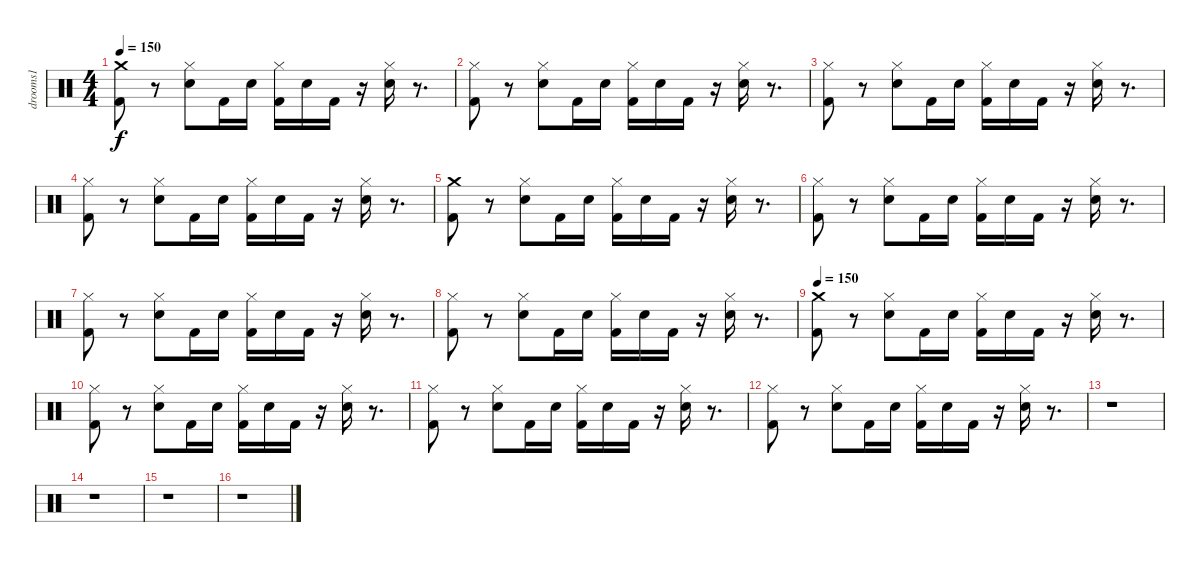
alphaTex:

\track ("drooms1" "drooms1") {instrument percussion}
\staff {score}
\articulation defaults
\ts (4 4)
\tempo 150
\clef neutral
\ks c
("Crash medium (hit)" "Kick (hit) 2").8{dy f} r.8 ("Hi-Hat (closed)" "Electric Snare (hit)").8 "Kick (hit) 2".16 "Electric Snare (hit)".16 ("Hi-Hat (closed)" "Kick (hit) 2").16 "Electric Snare (hit)".16 "Kick (hit) 2".16 r.16 ("Hi-Hat (closed)" "Electric Snare (hit)").16 r.8{d} |
("Hi-Hat (closed)" "Kick (hit) 2").8 r.8 ("Hi-Hat (closed)" "Electric Snare (hit)").8 "Kick (hit) 2".16 "Electric Snare (hit)".16 ("Hi-Hat (closed)" "Kick (hit) 2").16 "Electric Snare (hit)".16 "Kick (hit) 2".16 r.16 ("Hi-Hat (closed)" "Electric Snare (hit)").16 r.8{d} |
("Hi-Hat (closed)" "Kick (hit) 2").8 r.8 ("Hi-Hat (closed)" "Electric Snare (hit)").8 "Kick (hit) 2".16 "Electric Snare (hit)".16 ("Hi-Hat (closed)" "Kick (hit) 2").16 "Electric Snare (hit)".16 "Kick (hit) 2".16 r.16 ("Hi-Hat (closed)" "Electric Snare (hit)").16 r.8{d} |
("Hi-Hat (closed)" "Kick (hit) 2").8 r.8 ("Hi-Hat (closed)" "Electric Snare (hit)").8 "Kick (hit) 2".16 "Electric Snare (hit)".16 ("Hi-Hat (closed)" "Kick (hit) 2").16 "Electric Snare (hit)".16 "Kick (hit) 2".16 r.16 ("Hi-Hat (closed)" "Electric Snare (hit)").16 r.8{d} |
("Crash medium (hit)" "Kick (hit) 2").8 r.8 ("Hi-Hat (closed)" "Electric Snare (hit)").8 "Kick (hit) 2".16 "Electric Snare (hit)".16 ("Hi-Hat (closed)" "Kick (hit) 2").16 "Electric Snare (hit)".16 "Kick (hit) 2".16 r.16 ("Hi-Hat (closed)" "Electric Snare (hit)").16 r.8{d} |
("Hi-Hat (closed)" "Kick (hit) 2").8 r.8 ("Hi-Hat (closed)" "Electric Snare (hit)").8 "Kick (hit) 2".16 "Electric Snare (hit)".16 ("Hi-Hat (closed)" "Kick (hit) 2").16 "Electric Snare (hit)".16 "Kick (hit) 2".16 r.16 ("Hi-Hat (closed)" "Electric Snare (hit)").16 r.8{d} |
("Hi-Hat (closed)" "Kick (hit) 2").8 r.8 ("Hi-Hat (closed)" "Electric Snare (hit)").8 "Kick (hit) 2".16 "Electric Snare (hit)".16 ("Hi-Hat (closed)" "Kick (hit) 2").16 "Electric Snare (hit)".16 "Kick (hit) 2".16 r.16 ("Hi-Hat (closed)" "Electric Snare (hit)").16 r.8{d} |
("Hi-Hat (closed)" "Kick (hit) 2").8 r.8 ("Hi-Hat (closed)" "Electric Snare (hit)").8 "Kick (hit) 2".16 "Electric Snare (hit)".16 ("Hi-Hat (closed)" "Kick (hit) 2").16 "Electric Snare (hit)".16 "Kick (hit) 2".16 r.16 ("Hi-Hat (closed)" "Electric Snare (hit)").16 r.8{d} |
\tempo 150
("Crash medium (hit)" "Kick (hit) 2").8 r.8 ("Hi-Hat (closed)" "Electric Snare (hit)").8 "Kick (hit) 2".16 "Electric Snare (hit)".16 ("Hi-Hat (closed)" "Kick (hit) 2").16 "Electric Snare (hit)".16 "Kick (hit) 2".16 r.16 ("Hi-Hat (closed)" "Electric Snare (hit)").16 r.8{d} |
("Hi-Hat (closed)" "Kick (hit) 2").8 r.8 ("Hi-Hat (closed)" "Electric Snare (hit)").8 "Kick (hit) 2".16 "Electric Snare (hit)".16 ("Hi-Hat (closed)" "Kick (hit) 2").16 "Electric Snare (hit)".16 "Kick (hit) 2".16 r.16 ("Hi-Hat (closed)" "Electric Snare (hit)").16 r.8{d} |
("Hi-Hat (closed)" "Kick (hit) 2").8 r.8 ("Hi-Hat (closed)" "Electric Snare (hit)").8 "Kick (hit) 2".16 "Electric Snare (hit)".16 ("Hi-Hat (closed)" "Kick (hit) 2").16 "Electric Snare (hit)".16 "Kick (hit) 2".16 r.16 ("Hi-Hat (closed)" "Electric Snare (hit)").16 r.8{d} |
("Hi-Hat (closed)" "Kick (hit) 2").8 r.8 ("Hi-Hat (closed)" "Electric Snare (hit)").8 "Kick (hit) 2".16 "Electric Snare (hit)".16 ("Hi-Hat (closed)" "Kick (hit) 2").16 "Electric Snare (hit)".16 "Kick (hit) 2".16 r.16 ("Hi-Hat (closed)" "Electric Snare (hit)").16 r.8{d} |
r.1 |
r.1 |
r.1 |
r.1
